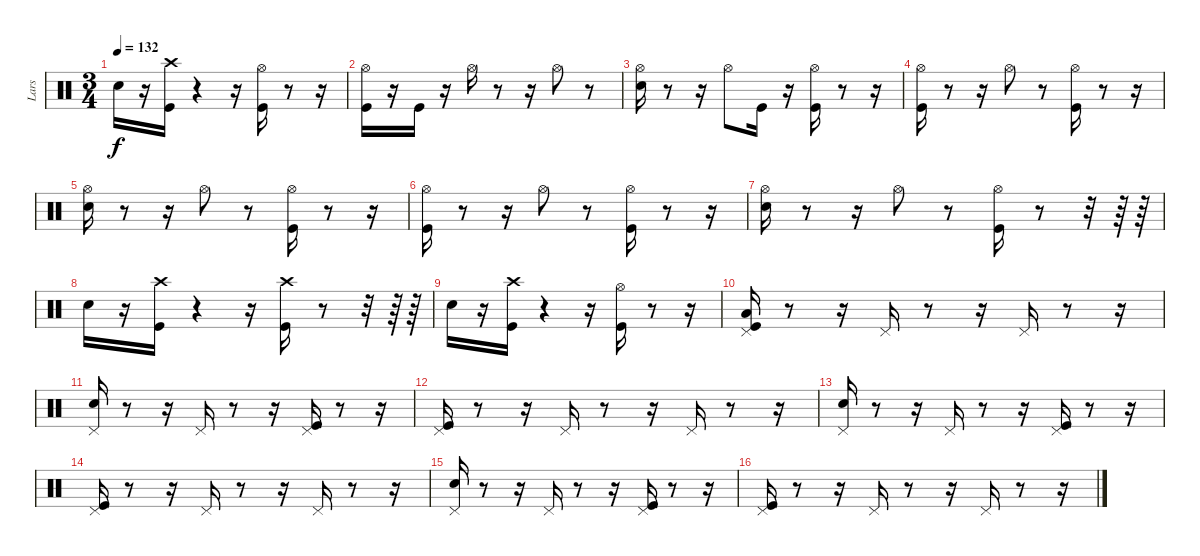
\track ("Lars" "Lars") {instrument percussion}
\staff {score}
\articulation defaults
\ts (3 4)
\tempo 132
\clef neutral
\ks c "Snare (hit) 2".16{dy f}
r.16 ("Kick (hit)" "Crash high (hit)").16 r.4 r.16 ("Hi-Hat (open)" "Kick (hit)").16 r.8 r.16 |
("Hi-Hat (open)" "Kick (hit)").16 r.16 "Kick (hit)".16 r.16 "Hi-Hat (open)".16 r.8 r.16 "Hi-Hat (open)".8 r.8 |
("Snare (hit) 2" "Hi-Hat (open)").16 r.8 r.16 "Hi-Hat (open)".8 "Kick (hit)".16 r.16 ("Hi-Hat (open)" "Kick (hit)").16 r.8 r.16 |
("Kick (hit)" "Hi-Hat (open)").16 r.8 r.16 "Hi-Hat (open)".8 r.8 ("Hi-Hat (open)" "Kick (hit)").16 r.8 r.16 |
("Hi-Hat (open)" "Snare (hit) 2").16 r.8 r.16 "Hi-Hat (open)".8 r.8 ("Hi-Hat (open)" "Kick (hit)").16 r.8 r.16 |
("Hi-Hat (open)" "Kick (hit)").16 r.8 r.16 "Hi-Hat (open)".8 r.8 ("Kick (hit)" "Hi-Hat (open)").16 r.8 r.16 |
("Hi-Hat (open)" "Snare (hit) 2").16 r.8 r.16 "Hi-Hat (open)".8 r.8 ("Hi-Hat (open)" "Kick (hit)").16 r.8 r.32 r.64 r.64 |
"Snare (hit) 2".16 r.16 ("Kick (hit)" "Crash high (hit)").16 r.4 r.16 ("Kick (hit)" "Crash high (hit)").16 r.8 r.32 r.64 r.64 |
"Snare (hit) 2".16 r.16 ("Kick (hit)" "Crash high (hit)").16 r.4 r.16 ("Kick (hit)" "Hi-Hat (open)").16 r.8 r.16 |
("Pedal Hi-Hat (hit)" "Low Floor Tom (hit)" "Kick (hit)").16 r.8 r.16 "Pedal Hi-Hat (hit)".16 r.8 r.16 "Pedal Hi-Hat (hit)".16 r.8 r.16 |
("Pedal Hi-Hat (hit)" "Snare (hit) 2").16 r.8 r.16 "Pedal Hi-Hat (hit)".16 r.8 r.16 ("Pedal Hi-Hat (hit)" "Kick (hit)").16 r.8 r.16 |
("Pedal Hi-Hat (hit)" "Kick (hit)").16 r.8 r.16 "Pedal Hi-Hat (hit)".16 r.8 r.16 "Pedal Hi-Hat (hit)".16 r.8 r.16 |
("Pedal Hi-Hat (hit)" "Snare (hit) 2").16 r.8 r.16 "Pedal Hi-Hat (hit)".16 r.8 r.16 ("Pedal Hi-Hat (hit)" "Kick (hit)").16 r.8 r.16 |
("Pedal Hi-Hat (hit)" "Kick (hit)").16 r.8 r.16 "Pedal Hi-Hat (hit)".16 r.8 r.16 "Pedal Hi-Hat (hit)".16 r.8 r.16 |
("Pedal Hi-Hat (hit)" "Snare (hit) 2").16 r.8 r.16 "Pedal Hi-Hat (hit)".16 r.8 r.16 ("Pedal Hi-Hat (hit)" "Kick (hit)").16 r.8 r.16 |
("Pedal Hi-Hat (hit)" "Kick (hit)").16 r.8 r.16 "Pedal Hi-Hat (hit)".16 r.8 r.16 "Pedal Hi-Hat (hit)".16 r.8 r.16
